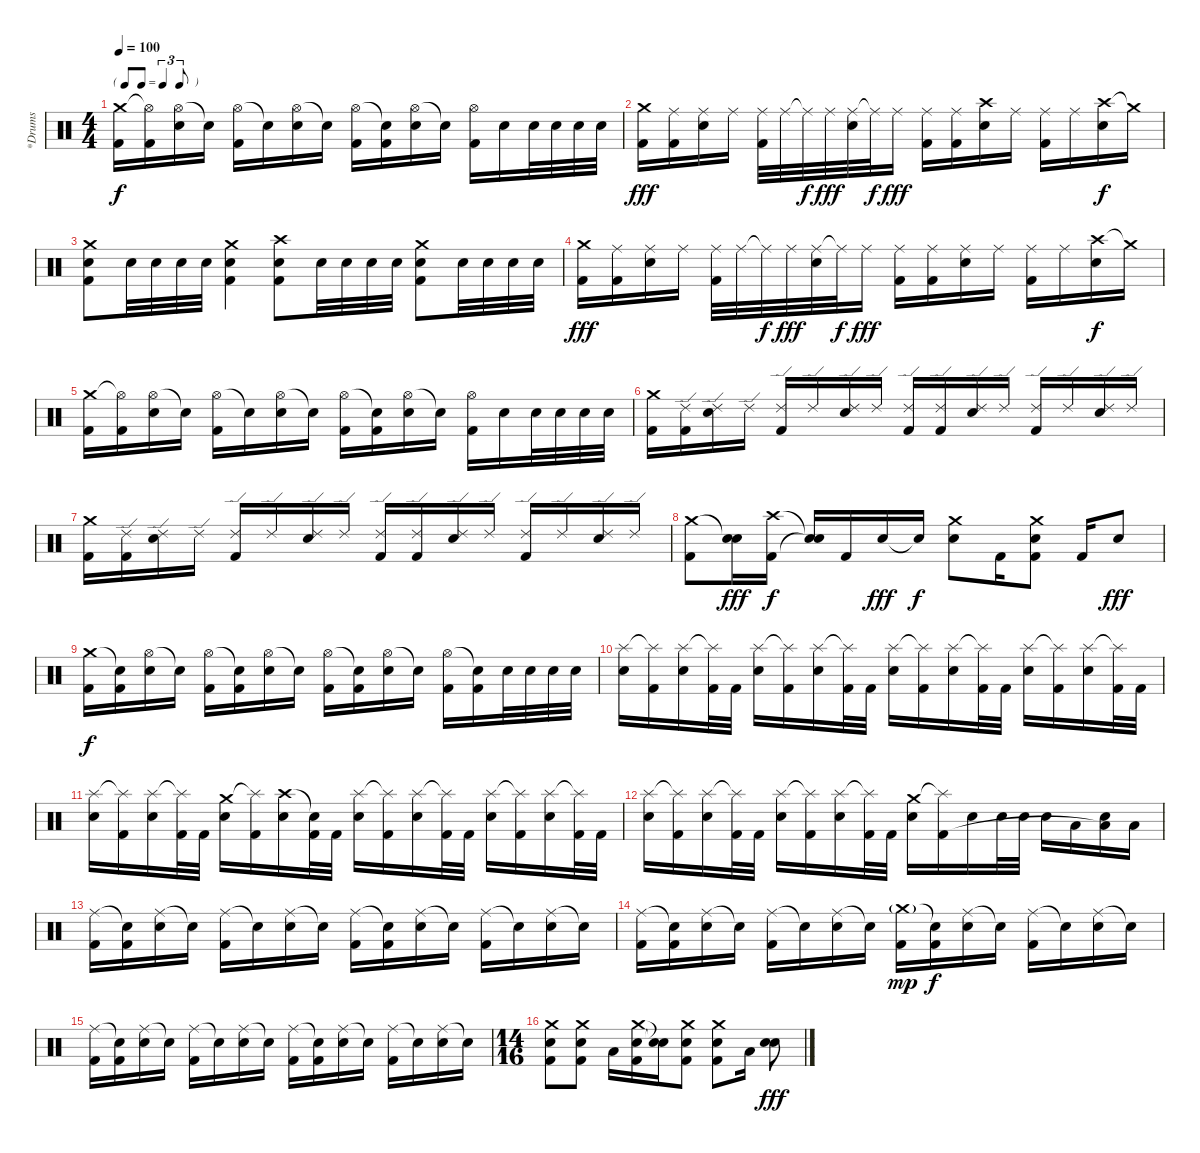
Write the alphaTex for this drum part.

\track ("*Drums" "*Drums") {instrument percussion}
\staff {score}
\articulation defaults
\ts (4 4)
\tf triplet8th
\tempo 100
\clef neutral
\ks c
("Crash medium (hit)" "Kick (hit) 2").16{dy f} ("Hi-Hat (open)"{t} "Kick (hit) 2").16 ("Hi-Hat (open)" "Electric Snare (hit)").16 "Snare (hit)"{t}.16 ("Hi-Hat (open)" "Kick (hit) 2").16 "Snare (hit)"{t}.16 ("Hi-Hat (open)" "Electric Snare (hit)").16 "Snare (hit)"{t}.16 ("Hi-Hat (open)" "Kick (hit) 2").16 ("Snare (hit)"{t} "Kick (hit) 2").16 ("Hi-Hat (open)" "Electric Snare (hit)").16 "Snare (hit)"{t}.16 ("Hi-Hat (open)" "Kick (hit) 2").16 "Electric Snare (hit)".16 "Electric Snare (hit)".32 "Electric Snare (hit)".32 "Electric Snare (hit)".32 "Electric Snare (hit)".32 |
("Crash medium (hit)" "Kick (hit) 2").16{dy fff} ("Ride (middle)" "Kick (hit) 2").16 ("Ride (middle)" "Electric Snare (hit)").16 "Ride (middle)".16 ("Ride (middle)" "Kick (hit) 2").32 "Ride (middle)".32 "Ride (middle)"{t}.32{dy f} "Ride (middle)".32{dy fff} ("Ride (middle)" "Electric Snare (hit)").32 "Ride (middle)"{t}.32{dy f} "Ride (middle)".16{dy fff} ("Ride (middle)" "Kick (hit) 2").16 ("Ride (middle)" "Kick (hit) 2").16 ("Crash high (hit)" "Electric Snare (hit)").16 "Ride (middle)".16 ("Ride (middle)" "Kick (hit) 2").16 "Ride (middle)".16 ("Crash high (hit)" "Electric Snare (hit)").16{dy f} "Crash medium (hit)"{t}.16 |
("Crash medium (hit)" "Electric Snare (hit)" "Kick (hit) 2").8 "Electric Snare (hit)".32 "Electric Snare (hit)".32 "Electric Snare (hit)".32 "Electric Snare (hit)".32 ("Crash medium (hit)" "Electric Snare (hit)" "Kick (hit) 2").4 ("Crash high (hit)" "Electric Snare (hit)" "Kick (hit) 2").8 "Electric Snare (hit)".32 "Electric Snare (hit)".32 "Electric Snare (hit)".32 "Electric Snare (hit)".32 ("Crash medium (hit)" "Electric Snare (hit)" "Kick (hit) 2").8 "Electric Snare (hit)".32 "Electric Snare (hit)".32 "Electric Snare (hit)".32 "Electric Snare (hit)".32 |
("Crash medium (hit)" "Kick (hit) 2").16{dy fff} ("Ride (middle)" "Kick (hit) 2").16 ("Ride (middle)" "Electric Snare (hit)").16 "Ride (middle)".16 ("Ride (middle)" "Kick (hit) 2").32 "Ride (middle)".32 "Ride (middle)"{t}.32{dy f} "Ride (middle)".32{dy fff} ("Ride (middle)" "Electric Snare (hit)").32 "Ride (middle)"{t}.32{dy f} "Ride (middle)".16{dy fff} ("Ride (middle)" "Kick (hit) 2").16 ("Ride (middle)" "Kick (hit) 2").16 ("Ride (middle)" "Electric Snare (hit)").16 "Ride (middle)".16 ("Ride (middle)" "Kick (hit) 2").16 "Ride (middle)".16 ("Crash high (hit)" "Electric Snare (hit)").16{dy f} "Crash medium (hit)"{t}.16 |
("Crash medium (hit)" "Kick (hit) 2").16 ("Hi-Hat (open)"{t} "Kick (hit) 2").16 ("Hi-Hat (open)" "Electric Snare (hit)").16 "Snare (hit)"{t}.16 ("Hi-Hat (open)" "Kick (hit) 2").16 "Snare (hit)"{t}.16 ("Hi-Hat (open)" "Electric Snare (hit)").16 "Snare (hit)"{t}.16 ("Hi-Hat (open)" "Kick (hit) 2").16 ("Snare (hit)"{t} "Kick (hit) 2").16 ("Hi-Hat (open)" "Electric Snare (hit)").16 "Snare (hit)"{t}.16 ("Hi-Hat (open)" "Kick (hit) 2").16 "Electric Snare (hit)".16 "Electric Snare (hit)".32 "Electric Snare (hit)".32 "Electric Snare (hit)".32 "Electric Snare (hit)".32 |
("Crash medium (hit)" "Kick (hit) 2").16 ("Ride (edge) 2" "Kick (hit) 2").16 ("Ride (edge) 2" "Electric Snare (hit)").16 "Ride (edge) 2".16 ("Ride (edge) 2" "Kick (hit) 2").16 "Ride (edge) 2".16 ("Ride (edge) 2" "Electric Snare (hit)").16 "Ride (edge) 2".16 ("Ride (edge) 2" "Kick (hit) 2").16 ("Ride (edge) 2" "Kick (hit) 2").16 ("Ride (edge) 2" "Electric Snare (hit)").16 "Ride (edge) 2".16 ("Ride (edge) 2" "Kick (hit) 2").16 "Ride (edge) 2".16 ("Ride (edge) 2" "Electric Snare (hit)").16 "Ride (edge) 2".16 |
("Crash medium (hit)" "Kick (hit) 2").16 ("Ride (edge) 2" "Kick (hit) 2").16 ("Ride (edge) 2" "Electric Snare (hit)").16 "Ride (edge) 2".16 ("Ride (edge) 2" "Kick (hit) 2").16 "Ride (edge) 2".16 ("Ride (edge) 2" "Electric Snare (hit)").16 "Ride (edge) 2".16 ("Ride (edge) 2" "Kick (hit) 2").16 ("Ride (edge) 2" "Kick (hit) 2").16 ("Ride (edge) 2" "Electric Snare (hit)").16 "Ride (edge) 2".16 ("Ride (edge) 2" "Kick (hit) 2").16 "Ride (edge) 2".16 ("Ride (edge) 2" "Electric Snare (hit)").16 "Ride (edge) 2".16 |
("Crash medium (hit)" "Kick (hit) 2").8 ("Snare (hit)"{t} "Electric Snare (hit)").16{dy fff} ("Crash high (hit)" "Kick (hit) 2").16{dy f} ("Snare (hit)"{t} "Snare (hit)"{t}).16 "Kick (hit) 2".16 "Electric Snare (hit)".16{dy fff} "Snare (hit)"{t}.16{dy f} ("Crash medium (hit)" "Electric Snare (hit)").8 "Kick (hit) 2".16 ("Crash medium (hit)" "Electric Snare (hit)" "Kick (hit) 2").8 "Kick (hit) 2".16 "Electric Snare (hit)".8{dy fff} |
("Crash medium (hit)" "Kick (hit) 2").16{dy f} ("Snare (hit)"{t} "Kick (hit) 2").16 ("Hi-Hat (open)" "Electric Snare (hit)").16 "Snare (hit)"{t}.16 ("Hi-Hat (open)" "Kick (hit) 2").16 ("Snare (hit)"{t} "Kick (hit) 2").16 ("Hi-Hat (open)" "Electric Snare (hit)").16 "Snare (hit)"{t}.16 ("Hi-Hat (open)" "Kick (hit) 2").16 ("Snare (hit)"{t} "Kick (hit) 2").16 ("Hi-Hat (open)" "Electric Snare (hit)").16 "Snare (hit)"{t}.16 ("Hi-Hat (open)" "Kick (hit) 2").16 ("Snare (hit)"{t} "Kick (hit) 2").16 "Electric Snare (hit)".32 "Electric Snare (hit)".32 "Electric Snare (hit)".32 "Electric Snare (hit)".32 |
("Splash (hit)" "Electric Snare (hit)").16 ("Splash (hit)"{t} "Kick (hit) 2").16 ("Splash (hit)" "Electric Snare (hit)").16 ("Splash (hit)"{t} "Kick (hit) 2").32 "Kick (hit) 2".32 ("Splash (hit)" "Electric Snare (hit)").16 ("Splash (hit)"{t} "Kick (hit) 2").16 ("Splash (hit)" "Electric Snare (hit)").16 ("Splash (hit)"{t} "Kick (hit) 2").32 "Kick (hit) 2".32 ("Splash (hit)" "Electric Snare (hit)").16 ("Splash (hit)"{t} "Kick (hit) 2").16 ("Splash (hit)" "Electric Snare (hit)").16 ("Splash (hit)"{t} "Kick (hit) 2").32 "Kick (hit) 2".32 ("Splash (hit)" "Electric Snare (hit)").16 ("Splash (hit)"{t} "Kick (hit) 2").16 ("Splash (hit)" "Electric Snare (hit)").16 ("Splash (hit)"{t} "Kick (hit) 2").32 "Kick (hit) 2".32 |
("Splash (hit)" "Electric Snare (hit)").16 ("Splash (hit)"{t} "Kick (hit) 2").16 ("Splash (hit)" "Electric Snare (hit)").16 ("Splash (hit)"{t} "Kick (hit) 2").32 "Kick (hit) 2".32 ("Crash medium (hit)" "Electric Snare (hit)").16 ("Splash (hit)"{t} "Kick (hit) 2").16 ("Crash high (hit)" "Electric Snare (hit)").16 ("Snare (hit)"{t} "Kick (hit) 2").32 "Kick (hit) 2".32 ("Splash (hit)" "Electric Snare (hit)").16 ("Splash (hit)"{t} "Kick (hit) 2").16 ("Splash (hit)" "Electric Snare (hit)").16 ("Splash (hit)"{t} "Kick (hit) 2").32 "Kick (hit) 2".32 ("Splash (hit)" "Electric Snare (hit)").16 ("Splash (hit)"{t} "Kick (hit) 2").16 ("Splash (hit)" "Electric Snare (hit)").16 ("Splash (hit)"{t} "Kick (hit) 2").32 "Kick (hit) 2".32 |
("Splash (hit)" "Electric Snare (hit)").16 ("Splash (hit)"{t} "Kick (hit) 2").16 ("Splash (hit)" "Electric Snare (hit)").16 ("Splash (hit)"{t} "Kick (hit) 2").32 "Kick (hit) 2".32 ("Splash (hit)" "Electric Snare (hit)").16 ("Splash (hit)"{t} "Kick (hit) 2").16 ("Splash (hit)" "Electric Snare (hit)").16 ("Splash (hit)"{t} "Kick (hit) 2").32 "Kick (hit) 2".32 ("Crash medium (hit)" "Electric Snare (hit)").16 ("Splash (hit)"{t} "Kick (hit) 2").16 "Electric Snare (hit)".16 "Electric Snare (hit)".32 "Electric Snare (hit)".32 "Electric Snare (hit)".16 "Low Tom (hit)".16 ("Electric Snare (hit)" "Low Tom (hit)"{t}).16 "Low Tom (hit)".16 |
("Ride (middle)" "Kick (hit) 2").16 ("Snare (hit)"{t} "Kick (hit) 2").16 ("Ride (middle)" "Electric Snare (hit)").16 "Snare (hit)"{t}.16 ("Ride (middle)" "Kick (hit) 2").16 "Snare (hit)"{t}.16 ("Ride (middle)" "Electric Snare (hit)").16 "Snare (hit)"{t}.16 ("Ride (middle)" "Kick (hit) 2").16 ("Snare (hit)"{t} "Kick (hit) 2").16 ("Ride (middle)" "Electric Snare (hit)").16 "Snare (hit)"{t}.16 ("Ride (middle)" "Kick (hit) 2").16 "Snare (hit)"{t}.16 ("Ride (middle)" "Electric Snare (hit)").16 "Snare (hit)"{t}.16 |
("Ride (middle)" "Kick (hit) 2").16 ("Snare (hit)"{t} "Kick (hit) 2").16 ("Ride (middle)" "Electric Snare (hit)").16 "Snare (hit)"{t}.16 ("Ride (middle)" "Kick (hit) 2").16 "Snare (hit)"{t}.16 ("Ride (middle)" "Electric Snare (hit)").16 "Snare (hit)"{t}.16 ("Crash medium (hit)"{g} "Kick (hit) 2").16{dy mp} ("Snare (hit)"{t} "Kick (hit) 2").16{dy f} ("Ride (middle)" "Electric Snare (hit)").16 "Snare (hit)"{t}.16 ("Ride (middle)" "Kick (hit) 2").16 "Snare (hit)"{t}.16 ("Ride (middle)" "Electric Snare (hit)").16 "Snare (hit)"{t}.16 |
("Ride (middle)" "Kick (hit) 2").16 ("Snare (hit)"{t} "Kick (hit) 2").16 ("Ride (middle)" "Electric Snare (hit)").16 "Snare (hit)"{t}.16 ("Ride (middle)" "Kick (hit) 2").16 "Snare (hit)"{t}.16 ("Ride (middle)" "Electric Snare (hit)").16 "Snare (hit)"{t}.16 ("Ride (middle)" "Kick (hit) 2").16 ("Snare (hit)"{t} "Kick (hit) 2").16 ("Ride (middle)" "Electric Snare (hit)").16 "Snare (hit)"{t}.16 ("Ride (middle)" "Kick (hit) 2").16 "Snare (hit)"{t}.16 ("Ride (middle)" "Electric Snare (hit)").16 "Snare (hit)"{t}.16 |
\ts (14 16)
("Crash medium (hit)" "Electric Snare (hit)" "Kick (hit) 2").8 ("Crash medium (hit)" "Electric Snare (hit)" "Kick (hit) 2").8 "Low Tom (hit)".16 ("Crash medium (hit)" "Electric Snare (hit)" "Kick (hit) 2").16 ("Snare (hit)"{t} "Electric Snare (hit)"{t}).16 ("Crash medium (hit)" "Electric Snare (hit)" "Kick (hit) 2").8 ("Crash medium (hit)" "Electric Snare (hit)" "Kick (hit) 2").8 "Low Tom (hit)".16 ("Electric Snare (hit)" "Electric Snare (hit)").8{dy fff}
